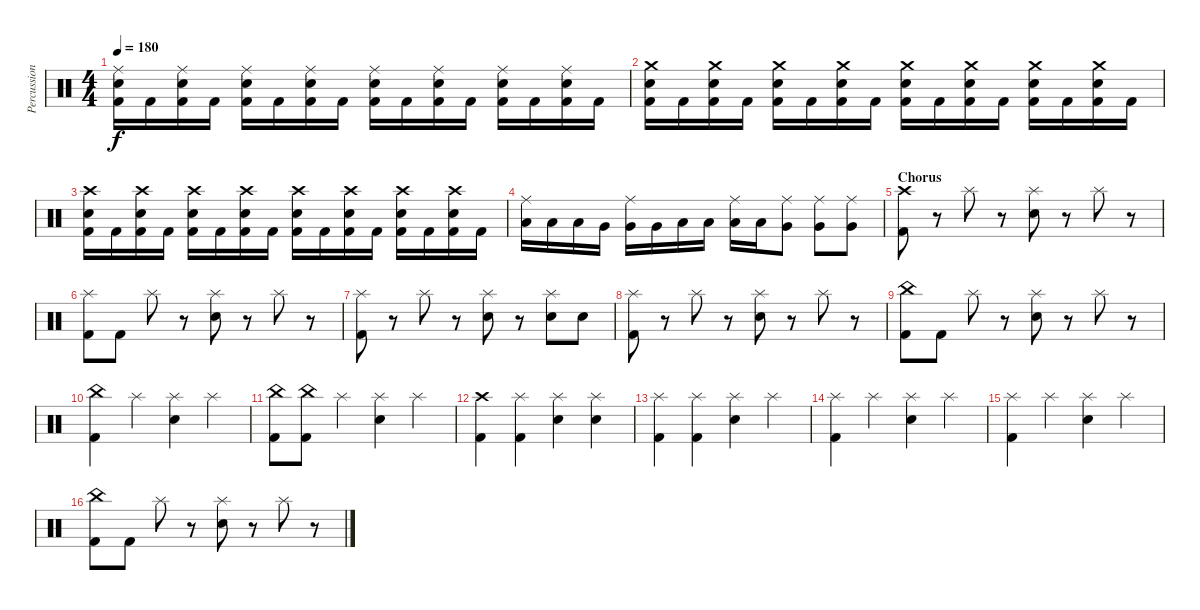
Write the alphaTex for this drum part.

\track ("Percussion" "Percussion") {instrument percussion}
\staff {score}
\articulation defaults
\ts (4 4)
\tempo 180
\clef neutral
\ks c
("Ride (middle)" "Snare (hit) 2" "Kick (hit) 2").16{dy f} "Kick (hit) 2".16 ("Ride (middle)" "Snare (hit) 2" "Kick (hit) 2").16 "Kick (hit) 2".16 ("Ride (middle)" "Snare (hit) 2" "Kick (hit) 2").16 "Kick (hit) 2".16 ("Ride (middle)" "Snare (hit) 2" "Kick (hit) 2").16 "Kick (hit) 2".16 ("Ride (middle)" "Snare (hit) 2" "Kick (hit) 2").16 "Kick (hit) 2".16 ("Ride (middle)" "Snare (hit) 2" "Kick (hit) 2").16 "Kick (hit) 2".16 ("Ride (middle)" "Snare (hit) 2" "Kick (hit) 2").16 "Kick (hit) 2".16 ("Ride (middle)" "Snare (hit) 2" "Kick (hit) 2").16 "Kick (hit) 2".16 |
("Crash medium (hit)" "Snare (hit) 2" "Kick (hit) 2").16 "Kick (hit) 2".16 ("Crash medium (hit)" "Snare (hit) 2" "Kick (hit) 2").16 "Kick (hit) 2".16 ("Crash medium (hit)" "Snare (hit) 2" "Kick (hit) 2").16 "Kick (hit) 2".16 ("Crash medium (hit)" "Snare (hit) 2" "Kick (hit) 2").16 "Kick (hit) 2".16 ("Crash medium (hit)" "Snare (hit) 2" "Kick (hit) 2").16 "Kick (hit) 2".16 ("Crash medium (hit)" "Snare (hit) 2" "Kick (hit) 2").16 "Kick (hit) 2".16 ("Crash medium (hit)" "Snare (hit) 2" "Kick (hit) 2").16 "Kick (hit) 2".16 ("Crash medium (hit)" "Snare (hit) 2" "Kick (hit) 2").16 "Kick (hit) 2".16 |
("Crash high (hit)" "Snare (hit) 2" "Kick (hit) 2").16 "Kick (hit) 2".16 ("Crash high (hit)" "Snare (hit) 2" "Kick (hit) 2").16 "Kick (hit) 2".16 ("Crash high (hit)" "Snare (hit) 2" "Kick (hit) 2").16 "Kick (hit) 2".16 ("Crash high (hit)" "Snare (hit) 2" "Kick (hit) 2").16 "Kick (hit) 2".16 ("Crash high (hit)" "Snare (hit) 2" "Kick (hit) 2").16 "Kick (hit) 2".16 ("Crash high (hit)" "Snare (hit) 2" "Kick (hit) 2").16 "Kick (hit) 2".16 ("Crash high (hit)" "Snare (hit) 2" "Kick (hit) 2").16 "Kick (hit) 2".16 ("Crash high (hit)" "Snare (hit) 2" "Kick (hit) 2").16 "Kick (hit) 2".16 |
("Ride (middle)" "Low Tom (hit)").16 "Low Tom (hit)".16 "Low Tom (hit)".16 "Very Low Tom (hit)".16 ("Ride (middle)" "Very Low Tom (hit)").16 "Very Low Tom (hit)".16 "Low Floor Tom (hit)".16 "Low Floor Tom (hit)".16 ("Ride (middle)" "Low Floor Tom (hit)").16 "Low Floor Tom (hit)".16 ("Ride (middle)" "Very Low Tom (hit)").8 ("Ride (middle)" "Very Low Tom (hit)").8 ("Ride (middle)" "Very Low Tom (hit)").8 |
\section ("" "Chorus")
("Crash high (hit)" "Kick (hit) 2").8 r.8 "Splash (hit)".8 r.8 ("Splash (hit)" "Snare (hit) 2").8 r.8 "Splash (hit)".8 r.8 |
("Splash (hit)" "Kick (hit) 2").8 "Kick (hit) 2".8 "Splash (hit)".8 r.8 ("Splash (hit)" "Snare (hit) 2").8 r.8 "Splash (hit)".8 r.8 |
("Splash (hit)" "Kick (hit) 2").8 r.8 "Splash (hit)".8 r.8 ("Splash (hit)" "Snare (hit) 2").8 r.8 ("Splash (hit)" "Snare (hit) 2").8 "Snare (hit) 2".8 |
("Splash (hit)" "Kick (hit) 2").8 r.8 "Splash (hit)".8 r.8 ("Splash (hit)" "Snare (hit) 2").8 r.8 "Splash (hit)".8 r.8 |
("China (hit)" "Kick (hit) 2").8 "Kick (hit) 2".8 "Splash (hit)".8 r.8 ("Splash (hit)" "Snare (hit) 2").8 r.8 "Splash (hit)".8 r.8 |
("China (hit)" "Kick (hit) 2").4 "Splash (hit)".4 ("Splash (hit)" "Snare (hit) 2").4 "Splash (hit)".4 |
("China (hit)" "Kick (hit) 2").8 ("China (hit)" "Kick (hit) 2").8 "Splash (hit)".4 ("Splash (hit)" "Snare (hit) 2").4 "Splash (hit)".4 |
("Crash high (hit)" "Kick (hit) 2").4 ("Splash (hit)" "Kick (hit) 2").4 ("Splash (hit)" "Snare (hit) 2").4 ("Splash (hit)" "Snare (hit) 2").4 |
("Splash (hit)" "Kick (hit) 2").4 ("Splash (hit)" "Kick (hit) 2").4 ("Splash (hit)" "Snare (hit) 2").4 "Splash (hit)".4 |
("Splash (hit)" "Kick (hit) 2").4 "Splash (hit)".4 ("Splash (hit)" "Snare (hit) 2").4 "Splash (hit)".4 |
("Splash (hit)" "Kick (hit) 2").4 "Splash (hit)".4 ("Splash (hit)" "Snare (hit) 2").4 "Splash (hit)".4 |
("China (hit)" "Kick (hit) 2").8 "Kick (hit) 2".8 "Splash (hit)".8 r.8 ("Splash (hit)" "Snare (hit) 2").8 r.8 "Splash (hit)".8 r.8
